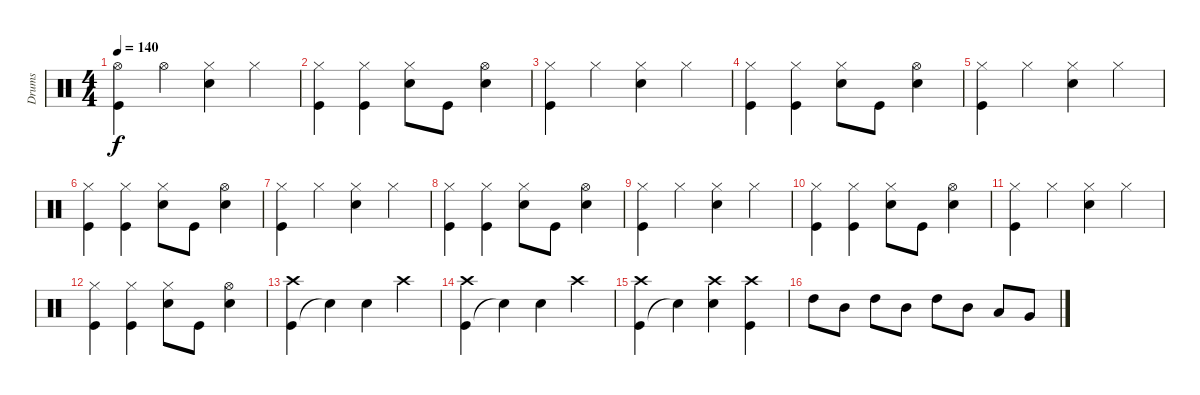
\track ("Drums" "Drums") {instrument percussion}
\staff {score}
\articulation defaults
\ts (4 4)
\tempo 140
\clef neutral
\ks c
("Kick (hit)" "Hi-Hat (open)").4{dy f} "Hi-Hat (open)".4 ("Snare (hit) 2" "Hi-Hat (closed)").4 "Hi-Hat (closed)".4 |
("Kick (hit)" "Hi-Hat (closed)").4 ("Kick (hit)" "Hi-Hat (closed)").4 ("Snare (hit) 2" "Hi-Hat (closed)").8 "Kick (hit)".8 ("Snare (hit) 2" "Hi-Hat (open)").4 |
("Kick (hit)" "Hi-Hat (closed)").4 "Hi-Hat (closed)".4 ("Snare (hit) 2" "Hi-Hat (closed)").4 "Hi-Hat (closed)".4 |
("Kick (hit)" "Hi-Hat (closed)").4 ("Kick (hit)" "Hi-Hat (closed)").4 ("Snare (hit) 2" "Hi-Hat (closed)").8 "Kick (hit)".8 ("Snare (hit) 2" "Hi-Hat (open)").4 |
("Kick (hit)" "Hi-Hat (closed)").4 "Hi-Hat (closed)".4 ("Snare (hit) 2" "Hi-Hat (closed)").4 "Hi-Hat (closed)".4 |
("Kick (hit)" "Hi-Hat (closed)").4 ("Kick (hit)" "Hi-Hat (closed)").4 ("Snare (hit) 2" "Hi-Hat (closed)").8 "Kick (hit)".8 ("Snare (hit) 2" "Hi-Hat (open)").4 |
("Kick (hit)" "Hi-Hat (closed)").4 "Hi-Hat (closed)".4 ("Snare (hit) 2" "Hi-Hat (closed)").4 "Hi-Hat (closed)".4 |
("Kick (hit)" "Hi-Hat (closed)").4 ("Kick (hit)" "Hi-Hat (closed)").4 ("Snare (hit) 2" "Hi-Hat (closed)").8 "Kick (hit)".8 ("Snare (hit) 2" "Hi-Hat (open)").4 |
("Kick (hit)" "Hi-Hat (closed)").4 "Hi-Hat (closed)".4 ("Snare (hit) 2" "Hi-Hat (closed)").4 "Hi-Hat (closed)".4 |
("Kick (hit)" "Hi-Hat (closed)").4 ("Kick (hit)" "Hi-Hat (closed)").4 ("Snare (hit) 2" "Hi-Hat (closed)").8 "Kick (hit)".8 ("Snare (hit) 2" "Hi-Hat (open)").4 |
("Kick (hit)" "Hi-Hat (closed)").4 "Hi-Hat (closed)".4 ("Snare (hit) 2" "Hi-Hat (closed)").4 "Hi-Hat (closed)".4 |
("Kick (hit)" "Hi-Hat (closed)").4 ("Kick (hit)" "Hi-Hat (closed)").4 ("Snare (hit) 2" "Hi-Hat (closed)").8 "Kick (hit)".8 ("Snare (hit) 2" "Hi-Hat (open)").4 |
("Kick (hit)" "Crash high (hit)").4 "Snare (hit)"{t}.4 "Snare (hit) 2".4 "Crash high (hit)".4 |
("Kick (hit)" "Crash high (hit)").4 "Snare (hit)"{t}.4 "Snare (hit) 2".4 "Crash high (hit)".4 |
("Kick (hit)" "Crash high (hit)").4 "Snare (hit)"{t}.4 ("Snare (hit) 2" "Crash high (hit)").4 ("Kick (hit)" "Crash high (hit)").4 |
"High Tom (hit)".8 "Mid Tom (hit)".8 "High Tom (hit)".8 "Mid Tom (hit)".8 "High Tom (hit)".8 "Mid Tom (hit)".8 "Low Tom (hit)".8 "Very Low Tom (hit)".8
